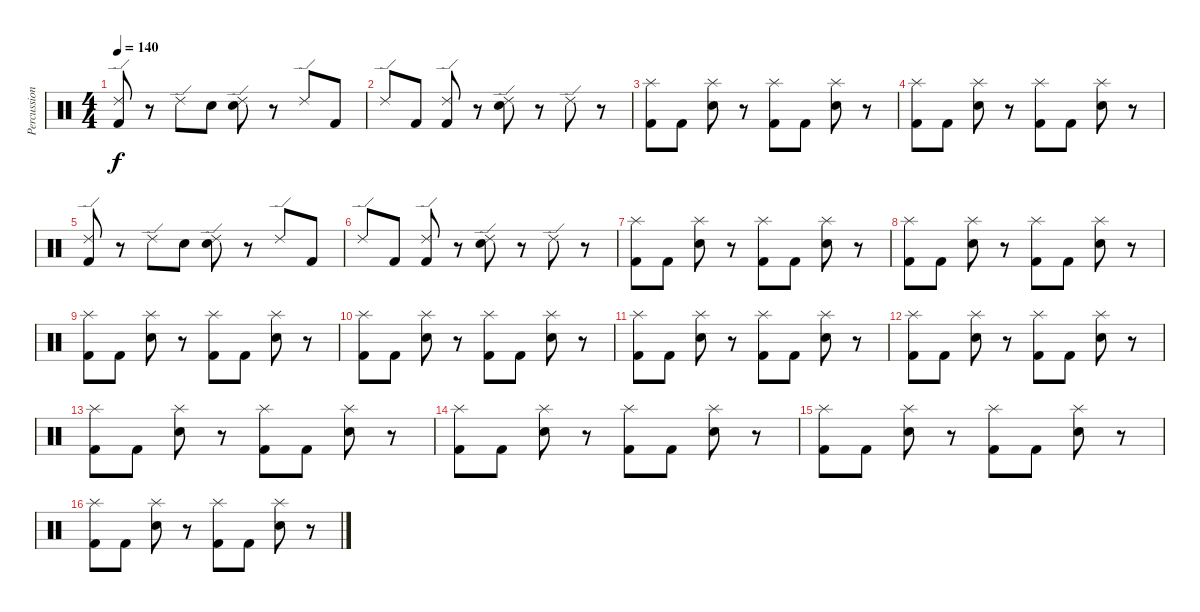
\track ("Percussion" "Percussion") {instrument percussion}
\staff {score}
\articulation defaults
\ts (4 4)
\tempo 140
\clef neutral
\ks c
("Ride (edge) 2" "Kick (hit) 2").8{dy f} r.8 "Ride (edge) 2".8 "Snare (hit) 2".8 ("Ride (edge) 2" "Snare (hit) 2").8 r.8 "Ride (edge) 2".8 "Kick (hit) 2".8 |
"Ride (edge) 2".8 "Kick (hit) 2".8 ("Ride (edge) 2" "Kick (hit) 2").8 r.8 ("Ride (edge) 2" "Snare (hit) 2").8 r.8 "Ride (edge) 2".8 r.8 |
("Splash (hit)" "Kick (hit) 2").8 "Kick (hit) 2".8 ("Splash (hit)" "Snare (hit) 2").8 r.8 ("Splash (hit)" "Kick (hit) 2").8 "Kick (hit) 2".8 ("Splash (hit)" "Snare (hit) 2").8 r.8 |
("Splash (hit)" "Kick (hit) 2").8 "Kick (hit) 2".8 ("Splash (hit)" "Snare (hit) 2").8 r.8 ("Splash (hit)" "Kick (hit) 2").8 "Kick (hit) 2".8 ("Splash (hit)" "Snare (hit) 2").8 r.8 |
("Ride (edge) 2" "Kick (hit) 2").8 r.8 "Ride (edge) 2".8 "Snare (hit) 2".8 ("Ride (edge) 2" "Snare (hit) 2").8 r.8 "Ride (edge) 2".8 "Kick (hit) 2".8 |
"Ride (edge) 2".8 "Kick (hit) 2".8 ("Ride (edge) 2" "Kick (hit) 2").8 r.8 ("Ride (edge) 2" "Snare (hit) 2").8 r.8 "Ride (edge) 2".8 r.8 |
("Splash (hit)" "Kick (hit) 2").8 "Kick (hit) 2".8 ("Splash (hit)" "Snare (hit) 2").8 r.8 ("Splash (hit)" "Kick (hit) 2").8 "Kick (hit) 2".8 ("Splash (hit)" "Snare (hit) 2").8 r.8 |
("Splash (hit)" "Kick (hit) 2").8 "Kick (hit) 2".8 ("Splash (hit)" "Snare (hit) 2").8 r.8 ("Splash (hit)" "Kick (hit) 2").8 "Kick (hit) 2".8 ("Splash (hit)" "Snare (hit) 2").8 r.8 |
("Splash (hit)" "Kick (hit) 2").8 "Kick (hit) 2".8 ("Splash (hit)" "Snare (hit) 2").8 r.8 ("Splash (hit)" "Kick (hit) 2").8 "Kick (hit) 2".8 ("Splash (hit)" "Snare (hit) 2").8 r.8 |
("Splash (hit)" "Kick (hit) 2").8 "Kick (hit) 2".8 ("Splash (hit)" "Snare (hit) 2").8 r.8 ("Splash (hit)" "Kick (hit) 2").8 "Kick (hit) 2".8 ("Splash (hit)" "Snare (hit) 2").8 r.8 |
("Splash (hit)" "Kick (hit) 2").8 "Kick (hit) 2".8 ("Splash (hit)" "Snare (hit) 2").8 r.8 ("Splash (hit)" "Kick (hit) 2").8 "Kick (hit) 2".8 ("Splash (hit)" "Snare (hit) 2").8 r.8 |
("Splash (hit)" "Kick (hit) 2").8 "Kick (hit) 2".8 ("Splash (hit)" "Snare (hit) 2").8 r.8 ("Splash (hit)" "Kick (hit) 2").8 "Kick (hit) 2".8 ("Splash (hit)" "Snare (hit) 2").8 r.8 |
("Splash (hit)" "Kick (hit) 2").8 "Kick (hit) 2".8 ("Splash (hit)" "Snare (hit) 2").8 r.8 ("Splash (hit)" "Kick (hit) 2").8 "Kick (hit) 2".8 ("Splash (hit)" "Snare (hit) 2").8 r.8 |
("Splash (hit)" "Kick (hit) 2").8 "Kick (hit) 2".8 ("Splash (hit)" "Snare (hit) 2").8 r.8 ("Splash (hit)" "Kick (hit) 2").8 "Kick (hit) 2".8 ("Splash (hit)" "Snare (hit) 2").8 r.8 |
("Splash (hit)" "Kick (hit) 2").8 "Kick (hit) 2".8 ("Splash (hit)" "Snare (hit) 2").8 r.8 ("Splash (hit)" "Kick (hit) 2").8 "Kick (hit) 2".8 ("Splash (hit)" "Snare (hit) 2").8 r.8 |
("Splash (hit)" "Kick (hit) 2").8 "Kick (hit) 2".8 ("Splash (hit)" "Snare (hit) 2").8 r.8 ("Splash (hit)" "Kick (hit) 2").8 "Kick (hit) 2".8 ("Splash (hit)" "Snare (hit) 2").8 r.8
